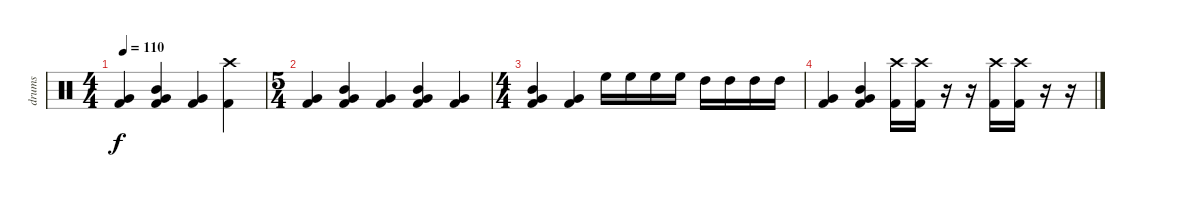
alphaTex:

\track ("drums" "drums") {instrument percussion}
\staff {score}
\articulation defaults
\ts (4 4)
\tempo 110
\clef neutral
\ks c
("Very Low Tom (hit)" "Kick (hit) 2").4{dy f} ("Mid Tom (hit)" "Very Low Tom (hit)" "Kick (hit) 2").4 ("Very Low Tom (hit)" "Kick (hit) 2").4 ("Crash high (hit)" "Kick (hit) 2").4 |
\ts (5 4)
("Very Low Tom (hit)" "Kick (hit) 2").4 ("Mid Tom (hit)" "Very Low Tom (hit)" "Kick (hit) 2").4 ("Very Low Tom (hit)" "Kick (hit) 2").4 ("Mid Tom (hit)" "Very Low Tom (hit)" "Kick (hit) 2").4 ("Very Low Tom (hit)" "Kick (hit) 2").4 |
\ts (4 4)
("Mid Tom (hit)" "Very Low Tom (hit)" "Kick (hit) 2").4 ("Very Low Tom (hit)" "Kick (hit) 2").4 "High Floor Tom (hit)".16 "High Floor Tom (hit)".16 "High Floor Tom (hit)".16 "High Floor Tom (hit)".16 "High Tom (hit)".16 "High Tom (hit)".16 "High Tom (hit)".16 "High Tom (hit)".16 |
("Very Low Tom (hit)" "Kick (hit) 2").4 ("Mid Tom (hit)" "Very Low Tom (hit)" "Kick (hit) 2").4 ("Crash high (hit)" "Kick (hit) 2").16 ("Crash high (hit)" "Kick (hit) 2").16 r.16 r.16 ("Crash high (hit)" "Kick (hit) 2").16 ("Crash high (hit)" "Kick (hit) 2").16 r.16 r.16
